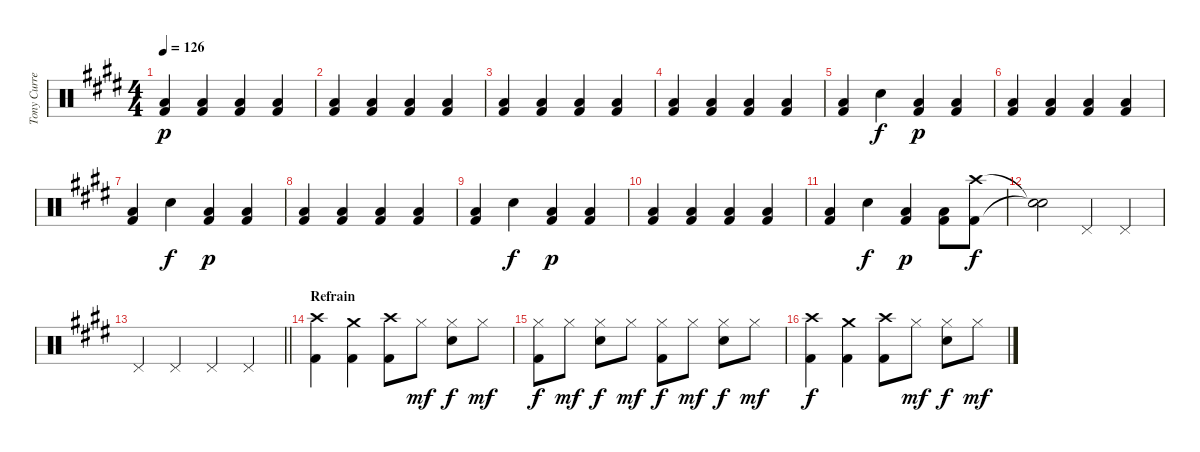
\track ("Tony Currenti" "Tony Curre") {instrument percussion}
\staff {score}
\articulation defaults
\ts (4 4)
\tempo 126
\clef neutral
\ks e
("Low Tom (hit)" "Kick (hit) 2").4{dy p} ("Low Tom (hit)" "Kick (hit) 2").4 ("Low Tom (hit)" "Kick (hit) 2").4 ("Low Tom (hit)" "Kick (hit) 2").4 |
("Low Tom (hit)" "Kick (hit) 2").4 ("Low Tom (hit)" "Kick (hit) 2").4 ("Low Tom (hit)" "Kick (hit) 2").4 ("Low Tom (hit)" "Kick (hit) 2").4 |
("Low Tom (hit)" "Kick (hit) 2").4 ("Low Tom (hit)" "Kick (hit) 2").4 ("Low Tom (hit)" "Kick (hit) 2").4 ("Low Tom (hit)" "Kick (hit) 2").4 |
("Low Tom (hit)" "Kick (hit) 2").4 ("Low Tom (hit)" "Kick (hit) 2").4 ("Low Tom (hit)" "Kick (hit) 2").4 ("Low Tom (hit)" "Kick (hit) 2").4 |
("Low Tom (hit)" "Kick (hit) 2").4 "Snare (hit) 2".4{dy f} ("Low Tom (hit)" "Kick (hit) 2").4{dy p} ("Low Tom (hit)" "Kick (hit) 2").4 |
("Low Tom (hit)" "Kick (hit) 2").4 ("Low Tom (hit)" "Kick (hit) 2").4 ("Low Tom (hit)" "Kick (hit) 2").4 ("Low Tom (hit)" "Kick (hit) 2").4 |
("Low Tom (hit)" "Kick (hit) 2").4 "Snare (hit) 2".4{dy f} ("Low Tom (hit)" "Kick (hit) 2").4{dy p} ("Low Tom (hit)" "Kick (hit) 2").4 |
("Low Tom (hit)" "Kick (hit) 2").4 ("Low Tom (hit)" "Kick (hit) 2").4 ("Low Tom (hit)" "Kick (hit) 2").4 ("Low Tom (hit)" "Kick (hit) 2").4 |
("Low Tom (hit)" "Kick (hit) 2").4 "Snare (hit) 2".4{dy f} ("Low Tom (hit)" "Kick (hit) 2").4{dy p} ("Low Tom (hit)" "Kick (hit) 2").4 |
("Low Tom (hit)" "Kick (hit) 2").4 ("Low Tom (hit)" "Kick (hit) 2").4 ("Low Tom (hit)" "Kick (hit) 2").4 ("Low Tom (hit)" "Kick (hit) 2").4 |
("Low Tom (hit)" "Kick (hit) 2").4 "Snare (hit) 2".4{dy f} ("Low Tom (hit)" "Kick (hit) 2").4{dy p} ("Low Tom (hit)" "Kick (hit) 2").8 ("Crash high (hit)" "Kick (hit) 2").8{dy f} |
("Snare (hit)"{t} "Snare (hit)"{t}).2 "Pedal Hi-Hat (hit)".4 "Pedal Hi-Hat (hit)".4 |
\barLineRight lightlight "Pedal Hi-Hat (hit)".4 "Pedal Hi-Hat (hit)".4 "Pedal Hi-Hat (hit)".4 "Pedal Hi-Hat (hit)".4
|
\section ("" "Refrain")
("Crash high (hit)" "Kick (hit) 2").4 ("Crash medium (hit)" "Kick (hit) 2").4 ("Crash high (hit)" "Kick (hit) 2").8 "Hi-Hat (closed)".8{dy mf} ("Hi-Hat (closed)" "Snare (hit) 2").8{dy f} "Hi-Hat (closed)".8{dy mf} |
("Hi-Hat (closed)" "Kick (hit) 2").8{dy f} "Hi-Hat (closed)".8{dy mf} ("Hi-Hat (closed)" "Snare (hit) 2").8{dy f} "Hi-Hat (closed)".8{dy mf} ("Hi-Hat (closed)" "Kick (hit) 2").8{dy f} "Hi-Hat (closed)".8{dy mf} ("Hi-Hat (closed)" "Snare (hit) 2").8{dy f} "Hi-Hat (closed)".8{dy mf} |
("Crash high (hit)" "Kick (hit) 2").4{dy f} ("Crash medium (hit)" "Kick (hit) 2").4 ("Crash high (hit)" "Kick (hit) 2").8 "Hi-Hat (closed)".8{dy mf} ("Hi-Hat (closed)" "Snare (hit) 2").8{dy f} "Hi-Hat (closed)".8{dy mf}
